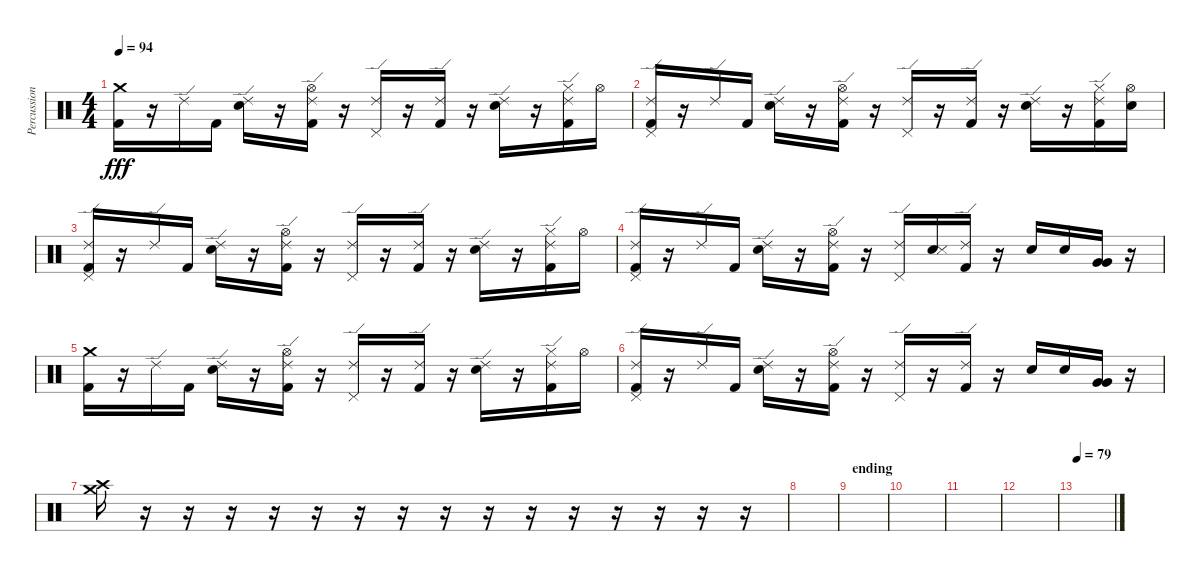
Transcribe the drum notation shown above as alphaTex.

\track ("Percussion" "Percussion") {instrument percussion}
\staff {score}
\articulation defaults
\ts (4 4)
\tempo 94
\clef neutral
\ks c
("Crash medium (hit)" "Kick (hit) 2").16{dy fff} r.16 "Ride (edge) 2".16 "Kick (hit) 2".16 ("Ride (edge) 2" "Electric Snare (hit)").16 r.16 ("Ride (edge) 2" "Hi-Hat (open)" "Kick (hit) 2").16 r.16 ("Ride (edge) 2" "Pedal Hi-Hat (hit)").16 r.16 ("Ride (edge) 2" "Kick (hit) 2").16 r.16 ("Ride (edge) 2" "Electric Snare (hit)").16 r.16 ("Ride (edge) 2" "Hi-Hat (closed)" "Kick (hit) 2").16 "Hi-Hat (open)".16 |
("Ride (edge) 2" "Pedal Hi-Hat (hit)" "Kick (hit) 2").16 r.16 "Ride (edge) 2".16 "Kick (hit) 2".16 ("Ride (edge) 2" "Electric Snare (hit)").16 r.16 ("Ride (edge) 2" "Hi-Hat (open)" "Kick (hit) 2").16 r.16 ("Ride (edge) 2" "Pedal Hi-Hat (hit)").16 r.16 ("Ride (edge) 2" "Kick (hit) 2").16 r.16 ("Ride (edge) 2" "Electric Snare (hit)").16 r.16 ("Ride (edge) 2" "Hi-Hat (closed)" "Kick (hit) 2").16 ("Hi-Hat (open)" "Electric Snare (hit)").16 |
("Ride (edge) 2" "Pedal Hi-Hat (hit)" "Kick (hit) 2").16 r.16 "Ride (edge) 2".16 "Kick (hit) 2".16 ("Ride (edge) 2" "Electric Snare (hit)").16 r.16 ("Ride (edge) 2" "Hi-Hat (open)" "Kick (hit) 2").16 r.16 ("Ride (edge) 2" "Pedal Hi-Hat (hit)").16 r.16 ("Ride (edge) 2" "Kick (hit) 2").16 r.16 ("Ride (edge) 2" "Electric Snare (hit)").16 r.16 ("Ride (edge) 2" "Hi-Hat (closed)" "Kick (hit) 2").16 "Hi-Hat (open)".16 |
("Ride (edge) 2" "Pedal Hi-Hat (hit)" "Kick (hit) 2").16 r.16 "Ride (edge) 2".16 "Kick (hit) 2".16 ("Ride (edge) 2" "Electric Snare (hit)").16 r.16 ("Ride (edge) 2" "Hi-Hat (open)" "Kick (hit) 2").16 r.16 ("Ride (edge) 2" "Pedal Hi-Hat (hit)").16 ("Electric Snare (hit)" "Snare (side stick) 3").16 ("Ride (edge) 2" "Kick (hit) 2").16 r.16 "Electric Snare (hit)".16 "Electric Snare (hit)".16 ("Very Low Tom (hit)" "Very Low Tom (hit)").16 r.16 |
("Crash medium (hit)" "Kick (hit) 2").16 r.16 "Ride (edge) 2".16 "Kick (hit) 2".16 ("Ride (edge) 2" "Electric Snare (hit)").16 r.16 ("Ride (edge) 2" "Hi-Hat (open)" "Kick (hit) 2").16 r.16 ("Ride (edge) 2" "Pedal Hi-Hat (hit)").16 r.16 ("Ride (edge) 2" "Kick (hit) 2").16 r.16 ("Ride (edge) 2" "Electric Snare (hit)").16 r.16 ("Ride (edge) 2" "Hi-Hat (closed)" "Kick (hit) 2").16 "Hi-Hat (open)".16 |
("Ride (edge) 2" "Pedal Hi-Hat (hit)" "Kick (hit) 2").16 r.16 "Ride (edge) 2".16 "Kick (hit) 2".16 ("Ride (edge) 2" "Electric Snare (hit)").16 r.16 ("Ride (edge) 2" "Hi-Hat (open)" "Kick (hit) 2").16 r.16 ("Ride (edge) 2" "Pedal Hi-Hat (hit)").16 r.16 ("Ride (edge) 2" "Kick (hit) 2").16 r.16 "Electric Snare (hit)".16 "Electric Snare (hit)".16 ("Very Low Tom (hit)" "Very Low Tom (hit)").16 r.16 |
("Crash high (hit)" "Crash medium (hit)").16 r.16 r.16 r.16 r.16 r.16 r.16 r.16 r.16 r.16 r.16 r.16 r.16 r.16 r.16 r.16 |
|
\section ("" "ending")
|
|
|
|
\tempo 79
